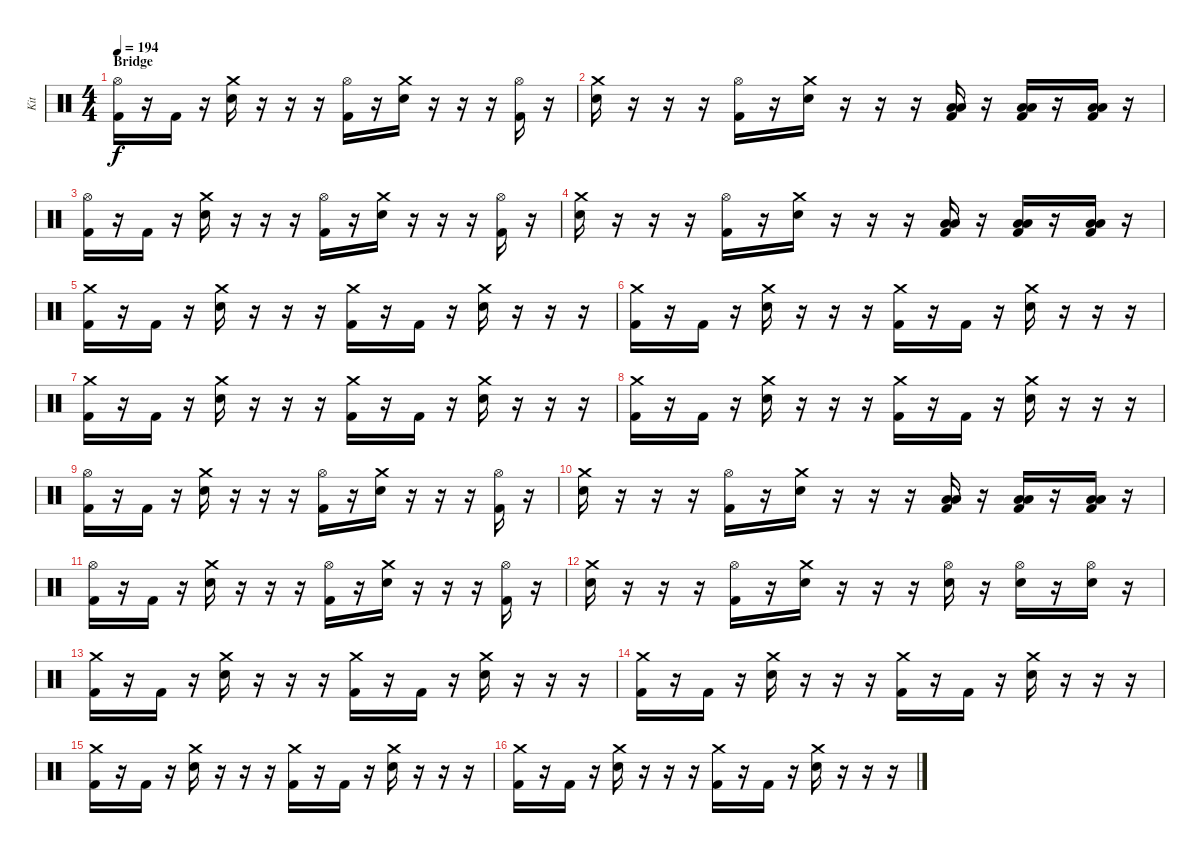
\track ("Kit" "Kit") {instrument percussion}
\staff {score}
\articulation defaults
\ts (4 4)
\section ("" "Bridge")
\tempo 194
\clef neutral
\ks c
("Hi-Hat (open)" "Kick (hit) 2").16{dy f} r.16 "Kick (hit) 2".16 r.16 ("Crash medium (hit)" "Electric Snare (hit)").16 r.16 r.16 r.16 ("Hi-Hat (open)" "Kick (hit) 2").16 r.16 ("Crash medium (hit)" "Electric Snare (hit)").16 r.16 r.16 r.16 ("Hi-Hat (open)" "Kick (hit) 2").16 r.16 |
("Crash medium (hit)" "Electric Snare (hit)").16 r.16 r.16 r.16 ("Hi-Hat (open)" "Kick (hit) 2").16 r.16 ("Crash medium (hit)" "Electric Snare (hit)").16 r.16 r.16 r.16 ("Low Tom (hit)" "Low Floor Tom (hit)" "Kick (hit) 2").16 r.16 ("Low Tom (hit)" "Low Floor Tom (hit)" "Kick (hit) 2").16 r.16 ("Low Tom (hit)" "Low Floor Tom (hit)" "Kick (hit) 2").16 r.16 |
("Hi-Hat (open)" "Kick (hit) 2").16 r.16 "Kick (hit) 2".16 r.16 ("Crash medium (hit)" "Electric Snare (hit)").16 r.16 r.16 r.16 ("Hi-Hat (open)" "Kick (hit) 2").16 r.16 ("Crash medium (hit)" "Electric Snare (hit)").16 r.16 r.16 r.16 ("Hi-Hat (open)" "Kick (hit) 2").16 r.16 |
("Crash medium (hit)" "Electric Snare (hit)").16 r.16 r.16 r.16 ("Hi-Hat (open)" "Kick (hit) 2").16 r.16 ("Crash medium (hit)" "Electric Snare (hit)").16 r.16 r.16 r.16 ("Low Tom (hit)" "Low Floor Tom (hit)" "Kick (hit) 2").16 r.16 ("Low Tom (hit)" "Low Floor Tom (hit)" "Kick (hit) 2").16 r.16 ("Low Tom (hit)" "Low Floor Tom (hit)" "Kick (hit) 2").16 r.16 |
("Crash medium (hit)" "Kick (hit) 2").16 r.16 "Kick (hit) 2".16 r.16 ("Crash medium (hit)" "Electric Snare (hit)").16 r.16 r.16 r.16 ("Crash medium (hit)" "Kick (hit) 2").16 r.16 "Kick (hit) 2".16 r.16 ("Crash medium (hit)" "Electric Snare (hit)").16 r.16 r.16 r.16 |
("Crash medium (hit)" "Kick (hit) 2").16 r.16 "Kick (hit) 2".16 r.16 ("Crash medium (hit)" "Electric Snare (hit)").16 r.16 r.16 r.16 ("Crash medium (hit)" "Kick (hit) 2").16 r.16 "Kick (hit) 2".16 r.16 ("Crash medium (hit)" "Electric Snare (hit)").16 r.16 r.16 r.16 |
("Crash medium (hit)" "Kick (hit) 2").16 r.16 "Kick (hit) 2".16 r.16 ("Crash medium (hit)" "Electric Snare (hit)").16 r.16 r.16 r.16 ("Crash medium (hit)" "Kick (hit) 2").16 r.16 "Kick (hit) 2".16 r.16 ("Crash medium (hit)" "Electric Snare (hit)").16 r.16 r.16 r.16 |
("Crash medium (hit)" "Kick (hit) 2").16 r.16 "Kick (hit) 2".16 r.16 ("Crash medium (hit)" "Electric Snare (hit)").16 r.16 r.16 r.16 ("Crash medium (hit)" "Kick (hit) 2").16 r.16 "Kick (hit) 2".16 r.16 ("Crash medium (hit)" "Electric Snare (hit)").16 r.16 r.16 r.16 |
("Hi-Hat (open)" "Kick (hit) 2").16 r.16 "Kick (hit) 2".16 r.16 ("Crash medium (hit)" "Electric Snare (hit)").16 r.16 r.16 r.16 ("Hi-Hat (open)" "Kick (hit) 2").16 r.16 ("Crash medium (hit)" "Electric Snare (hit)").16 r.16 r.16 r.16 ("Hi-Hat (open)" "Kick (hit) 2").16 r.16 |
("Crash medium (hit)" "Electric Snare (hit)").16 r.16 r.16 r.16 ("Hi-Hat (open)" "Kick (hit) 2").16 r.16 ("Crash medium (hit)" "Electric Snare (hit)").16 r.16 r.16 r.16 ("Low Tom (hit)" "Low Floor Tom (hit)" "Kick (hit) 2").16 r.16 ("Low Tom (hit)" "Low Floor Tom (hit)" "Kick (hit) 2").16 r.16 ("Low Tom (hit)" "Low Floor Tom (hit)" "Kick (hit) 2").16 r.16 |
("Hi-Hat (open)" "Kick (hit) 2").16 r.16 "Kick (hit) 2".16 r.16 ("Crash medium (hit)" "Electric Snare (hit)").16 r.16 r.16 r.16 ("Hi-Hat (open)" "Kick (hit) 2").16 r.16 ("Crash medium (hit)" "Electric Snare (hit)").16 r.16 r.16 r.16 ("Hi-Hat (open)" "Kick (hit) 2").16 r.16 |
("Crash medium (hit)" "Electric Snare (hit)").16 r.16 r.16 r.16 ("Hi-Hat (open)" "Kick (hit) 2").16 r.16 ("Crash medium (hit)" "Electric Snare (hit)").16 r.16 r.16 r.16 ("Hi-Hat (open)" "Electric Snare (hit)").16 r.16 ("Hi-Hat (open)" "Electric Snare (hit)").16 r.16 ("Hi-Hat (open)" "Electric Snare (hit)").16 r.16 |
("Crash medium (hit)" "Kick (hit) 2").16 r.16 "Kick (hit) 2".16 r.16 ("Crash medium (hit)" "Electric Snare (hit)").16 r.16 r.16 r.16 ("Crash medium (hit)" "Kick (hit) 2").16 r.16 "Kick (hit) 2".16 r.16 ("Crash medium (hit)" "Electric Snare (hit)").16 r.16 r.16 r.16 |
("Crash medium (hit)" "Kick (hit) 2").16 r.16 "Kick (hit) 2".16 r.16 ("Crash medium (hit)" "Electric Snare (hit)").16 r.16 r.16 r.16 ("Crash medium (hit)" "Kick (hit) 2").16 r.16 "Kick (hit) 2".16 r.16 ("Crash medium (hit)" "Electric Snare (hit)").16 r.16 r.16 r.16 |
("Crash medium (hit)" "Kick (hit) 2").16 r.16 "Kick (hit) 2".16 r.16 ("Crash medium (hit)" "Electric Snare (hit)").16 r.16 r.16 r.16 ("Crash medium (hit)" "Kick (hit) 2").16 r.16 "Kick (hit) 2".16 r.16 ("Crash medium (hit)" "Electric Snare (hit)").16 r.16 r.16 r.16 |
("Crash medium (hit)" "Kick (hit) 2").16 r.16 "Kick (hit) 2".16 r.16 ("Crash medium (hit)" "Electric Snare (hit)").16 r.16 r.16 r.16 ("Crash medium (hit)" "Kick (hit) 2").16 r.16 "Kick (hit) 2".16 r.16 ("Crash medium (hit)" "Electric Snare (hit)").16 r.16 r.16 r.16
